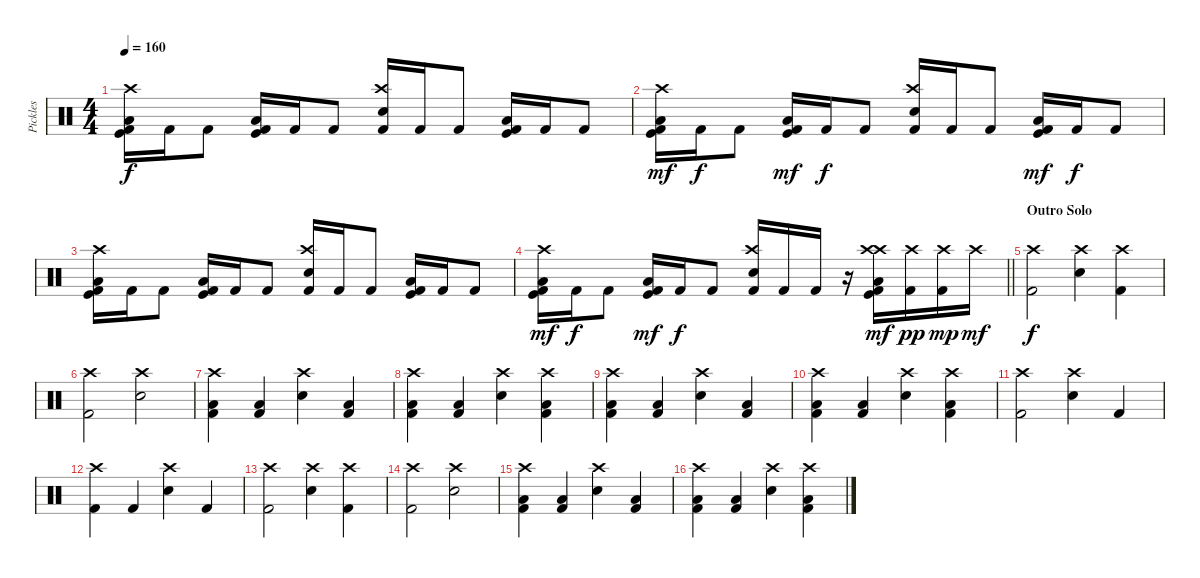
\track ("Pickles" "Pickles") {instrument percussion}
\staff {score}
\articulation defaults
\ts (4 4)
\tempo 160
\clef neutral
\ks c
("Kick (hit) 2" "Kick (hit)" "Low Tom (hit)" "Crash high (hit)").16{dy f} "Kick (hit) 2".16 "Kick (hit) 2".8 ("Kick (hit) 2" "Kick (hit)" "Low Tom (hit)").16 "Kick (hit) 2".16 "Kick (hit) 2".8 ("Kick (hit) 2" "Electric Snare (hit)" "Crash high (hit)").16 "Kick (hit) 2".16 "Kick (hit) 2".8 ("Kick (hit) 2" "Kick (hit)" "Low Tom (hit)").16 "Kick (hit) 2".16 "Kick (hit) 2".8 |
("Kick (hit) 2" "Kick (hit)" "Low Tom (hit)" "Crash high (hit)").16{dy mf} "Kick (hit) 2".16{dy f} "Kick (hit) 2".8 ("Kick (hit) 2" "Kick (hit)" "Low Tom (hit)").16{dy mf} "Kick (hit) 2".16{dy f} "Kick (hit) 2".8 ("Kick (hit) 2" "Electric Snare (hit)" "Crash high (hit)").16 "Kick (hit) 2".16 "Kick (hit) 2".8 ("Kick (hit) 2" "Kick (hit)" "Low Tom (hit)").16{dy mf} "Kick (hit) 2".16{dy f} "Kick (hit) 2".8 |
("Kick (hit) 2" "Kick (hit)" "Low Tom (hit)" "Crash high (hit)").16 "Kick (hit) 2".16 "Kick (hit) 2".8 ("Kick (hit) 2" "Kick (hit)" "Low Tom (hit)").16 "Kick (hit) 2".16 "Kick (hit) 2".8 ("Kick (hit) 2" "Electric Snare (hit)" "Crash high (hit)").16 "Kick (hit) 2".16 "Kick (hit) 2".8 ("Kick (hit) 2" "Kick (hit)" "Low Tom (hit)").16 "Kick (hit) 2".16 "Kick (hit) 2".8 |
\barLineRight lightlight
("Kick (hit) 2" "Kick (hit)" "Low Tom (hit)" "Crash high (hit)").16{dy mf} "Kick (hit) 2".16{dy f} "Kick (hit) 2".8 ("Kick (hit) 2" "Kick (hit)" "Low Tom (hit)").16{dy mf} "Kick (hit) 2".16{dy f} "Kick (hit) 2".8 ("Kick (hit) 2" "Electric Snare (hit)" "Crash high (hit)").16 "Kick (hit) 2".16 "Kick (hit) 2".16 r.16 ("Kick (hit) 2" "Kick (hit)" "Crash high (hit)" "Low Tom (hit)" "Crash high (hit)").16{dy mf} ("Kick (hit) 2" "Crash high (hit)").16{dy pp} ("Kick (hit) 2" "Crash high (hit)").16{dy mp} "Crash high (hit)".16{dy mf} |
\section ("" "Outro Solo")
("Crash high (hit)" "Kick (hit) 2").2{dy f} ("Crash high (hit)" "Electric Snare (hit)").4 ("Crash high (hit)" "Kick (hit) 2").4 |
("Crash high (hit)" "Kick (hit) 2").2 ("Crash high (hit)" "Electric Snare (hit)").2 |
("Crash high (hit)" "Low Tom (hit)" "Kick (hit) 2").4 ("Low Tom (hit)" "Kick (hit) 2").4 ("Crash high (hit)" "Electric Snare (hit)").4 ("Low Tom (hit)" "Kick (hit) 2").4 |
("Crash high (hit)" "Low Tom (hit)" "Kick (hit) 2").4 ("Low Tom (hit)" "Kick (hit) 2").4 ("Crash high (hit)" "Electric Snare (hit)").4 ("Crash high (hit)" "Low Tom (hit)" "Kick (hit) 2").4 |
("Crash high (hit)" "Low Tom (hit)" "Kick (hit) 2").4 ("Low Tom (hit)" "Kick (hit) 2").4 ("Crash high (hit)" "Electric Snare (hit)").4 ("Low Tom (hit)" "Kick (hit) 2").4 |
("Crash high (hit)" "Low Tom (hit)" "Kick (hit) 2").4 ("Low Tom (hit)" "Kick (hit) 2").4 ("Crash high (hit)" "Electric Snare (hit)").4 ("Crash high (hit)" "Low Tom (hit)" "Kick (hit) 2").4 |
("Crash high (hit)" "Kick (hit) 2").2 ("Crash high (hit)" "Electric Snare (hit)").4 "Kick (hit) 2".4 |
("Crash high (hit)" "Kick (hit) 2").4 "Kick (hit) 2".4 ("Crash high (hit)" "Electric Snare (hit)").4 "Kick (hit) 2".4 |
("Crash high (hit)" "Kick (hit) 2").2 ("Crash high (hit)" "Electric Snare (hit)").4 ("Crash high (hit)" "Kick (hit) 2").4 |
("Crash high (hit)" "Kick (hit) 2").2 ("Crash high (hit)" "Electric Snare (hit)").2 |
("Crash high (hit)" "Low Tom (hit)" "Kick (hit) 2").4 ("Low Tom (hit)" "Kick (hit) 2").4 ("Crash high (hit)" "Electric Snare (hit)").4 ("Low Tom (hit)" "Kick (hit) 2").4 |
("Crash high (hit)" "Low Tom (hit)" "Kick (hit) 2").4 ("Low Tom (hit)" "Kick (hit) 2").4 ("Crash high (hit)" "Electric Snare (hit)").4 ("Crash high (hit)" "Low Tom (hit)" "Kick (hit) 2").4
